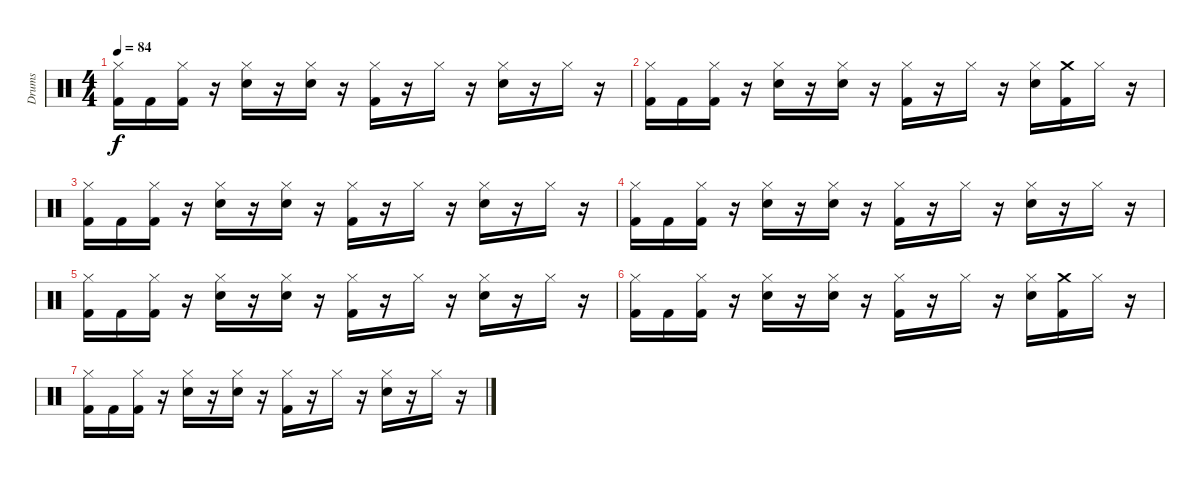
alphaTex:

\track ("Drums" "Drums") {instrument percussion}
\staff {score}
\articulation defaults
\ts (4 4)
\tempo 84
\clef neutral
\ks c
("Hi-Hat (closed)" "Kick (hit) 2").16{dy f} "Kick (hit) 2".16 ("Hi-Hat (closed)" "Kick (hit) 2").16 r.16 ("Hi-Hat (closed)" "Snare (hit) 2").16 r.16 ("Hi-Hat (closed)" "Snare (hit) 2").16 r.16 ("Hi-Hat (closed)" "Kick (hit) 2").16 r.16 "Hi-Hat (closed)".16 r.16 ("Hi-Hat (closed)" "Snare (hit) 2").16 r.16 "Hi-Hat (closed)".16 r.16 |
("Hi-Hat (closed)" "Kick (hit) 2").16 "Kick (hit) 2".16 ("Hi-Hat (closed)" "Kick (hit) 2").16 r.16 ("Hi-Hat (closed)" "Snare (hit) 2").16 r.16 ("Hi-Hat (closed)" "Snare (hit) 2").16 r.16 ("Hi-Hat (closed)" "Kick (hit) 2").16 r.16 "Hi-Hat (closed)".16 r.16 ("Hi-Hat (closed)" "Snare (hit) 2").16 ("Crash medium (hit)" "Kick (hit) 2").16 "Hi-Hat (closed)".16 r.16 |
("Hi-Hat (closed)" "Kick (hit) 2").16 "Kick (hit) 2".16 ("Hi-Hat (closed)" "Kick (hit) 2").16 r.16 ("Hi-Hat (closed)" "Snare (hit) 2").16 r.16 ("Hi-Hat (closed)" "Snare (hit) 2").16 r.16 ("Hi-Hat (closed)" "Kick (hit) 2").16 r.16 "Hi-Hat (closed)".16 r.16 ("Hi-Hat (closed)" "Snare (hit) 2").16 r.16 "Hi-Hat (closed)".16 r.16 |
("Hi-Hat (closed)" "Kick (hit) 2").16 "Kick (hit) 2".16 ("Hi-Hat (closed)" "Kick (hit) 2").16 r.16 ("Hi-Hat (closed)" "Snare (hit) 2").16 r.16 ("Hi-Hat (closed)" "Snare (hit) 2").16 r.16 ("Hi-Hat (closed)" "Kick (hit) 2").16 r.16 "Hi-Hat (closed)".16 r.16 ("Hi-Hat (closed)" "Snare (hit) 2").16 r.16 "Hi-Hat (closed)".16 r.16 |
("Hi-Hat (closed)" "Kick (hit) 2").16 "Kick (hit) 2".16 ("Hi-Hat (closed)" "Kick (hit) 2").16 r.16 ("Hi-Hat (closed)" "Snare (hit) 2").16 r.16 ("Hi-Hat (closed)" "Snare (hit) 2").16 r.16 ("Hi-Hat (closed)" "Kick (hit) 2").16{volume 2} r.16 "Hi-Hat (closed)".16 r.16 ("Hi-Hat (closed)" "Snare (hit) 2").16 r.16 "Hi-Hat (closed)".16 r.16 |
("Hi-Hat (closed)" "Kick (hit) 2").16 "Kick (hit) 2".16 ("Hi-Hat (closed)" "Kick (hit) 2").16 r.16 ("Hi-Hat (closed)" "Snare (hit) 2").16 r.16 ("Hi-Hat (closed)" "Snare (hit) 2").16 r.16 ("Hi-Hat (closed)" "Kick (hit) 2").16 r.16 "Hi-Hat (closed)".16 r.16 ("Hi-Hat (closed)" "Snare (hit) 2").16 ("Crash medium (hit)" "Kick (hit) 2").16 "Hi-Hat (closed)".16 r.16 |
("Hi-Hat (closed)" "Kick (hit) 2").16 "Kick (hit) 2".16 ("Hi-Hat (closed)" "Kick (hit) 2").16 r.16 ("Hi-Hat (closed)" "Snare (hit) 2").16 r.16 ("Hi-Hat (closed)" "Snare (hit) 2").16 r.16 ("Hi-Hat (closed)" "Kick (hit) 2").16 r.16 "Hi-Hat (closed)".16 r.16 ("Hi-Hat (closed)" "Snare (hit) 2").16 r.16 "Hi-Hat (closed)".16 r.16
